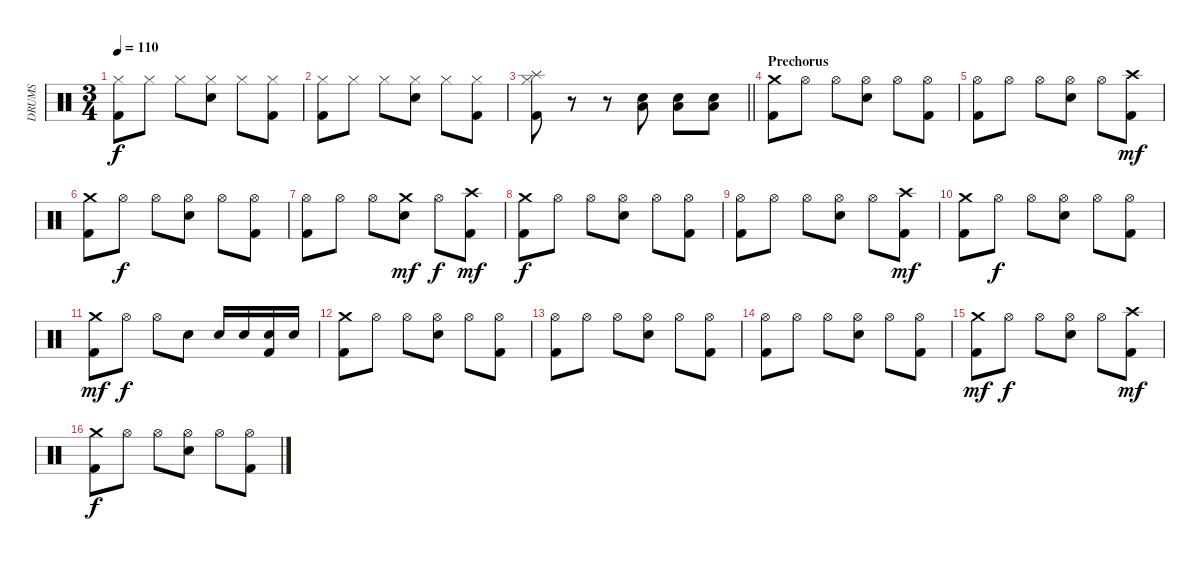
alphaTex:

\track ("DRUMS" "DRUMS") {instrument percussion}
\staff {score}
\articulation defaults
\ts (3 4)
\tempo 110
\clef neutral
\ks c
("Kick (hit) 2" "Hi-Hat (closed)").8{dy f} "Hi-Hat (closed)".8 "Hi-Hat (closed)".8 ("Electric Snare (hit)" "Hi-Hat (closed)").8 "Hi-Hat (closed)".8 ("Kick (hit) 2" "Hi-Hat (closed)").8 |
("Kick (hit) 2" "Hi-Hat (closed)").8 "Hi-Hat (closed)".8 "Hi-Hat (closed)".8 ("Electric Snare (hit)" "Hi-Hat (closed)").8 "Hi-Hat (closed)".8 ("Kick (hit) 2" "Hi-Hat (closed)").8 |
\barLineRight lightlight
("Kick (hit) 2" "Hi-Hat (closed)" "Splash (hit)").8 r.8 r.8 ("Electric Snare (hit)" "Low Floor Tom (hit)").8 ("Electric Snare (hit)" "Low Floor Tom (hit)").8 ("Electric Snare (hit)" "Low Floor Tom (hit)").8 |
\section ("" "Prechorus")
("Crash medium (hit)" "Kick (hit) 2").8 "Hi-Hat (open)".8 "Hi-Hat (open)".8 ("Hi-Hat (open)" "Snare (hit) 2").8 "Hi-Hat (open)".8 ("Hi-Hat (open)" "Kick (hit) 2").8 |
("Hi-Hat (open)" "Kick (hit) 2").8 "Hi-Hat (open)".8 "Hi-Hat (open)".8 ("Hi-Hat (open)" "Snare (hit) 2").8 "Hi-Hat (open)".8 ("Crash high (hit)" "Kick (hit) 2").8{dy mf} |
("Crash medium (hit)" "Kick (hit) 2").8 "Hi-Hat (open)".8{dy f} "Hi-Hat (open)".8 ("Hi-Hat (open)" "Snare (hit) 2").8 "Hi-Hat (open)".8 ("Hi-Hat (open)" "Kick (hit) 2").8 |
("Hi-Hat (open)" "Kick (hit) 2").8 "Hi-Hat (open)".8 "Hi-Hat (open)".8 ("Crash medium (hit)" "Snare (hit) 2").8{dy mf} "Hi-Hat (open)".8{dy f} ("Crash high (hit)" "Kick (hit) 2").8{dy mf} |
("Crash medium (hit)" "Kick (hit) 2").8{dy f} "Hi-Hat (open)".8 "Hi-Hat (open)".8 ("Hi-Hat (open)" "Snare (hit) 2").8 "Hi-Hat (open)".8 ("Hi-Hat (open)" "Kick (hit) 2").8 |
("Hi-Hat (open)" "Kick (hit) 2").8 "Hi-Hat (open)".8 "Hi-Hat (open)".8 ("Hi-Hat (open)" "Snare (hit) 2").8 "Hi-Hat (open)".8 ("Crash high (hit)" "Kick (hit) 2").8{dy mf} |
("Crash medium (hit)" "Kick (hit) 2").8 "Hi-Hat (open)".8{dy f} "Hi-Hat (open)".8 ("Hi-Hat (open)" "Snare (hit) 2").8 "Hi-Hat (open)".8 ("Hi-Hat (open)" "Kick (hit) 2").8 |
("Crash medium (hit)" "Kick (hit) 2").8{dy mf} "Hi-Hat (open)".8{dy f} "Hi-Hat (open)".8 "Snare (hit) 2".8 "Snare (hit) 2".16 "Snare (hit) 2".16 ("Snare (hit) 2" "Kick (hit) 2").16 "Snare (hit) 2".16 |
("Crash medium (hit)" "Kick (hit) 2").8 "Hi-Hat (open)".8 "Hi-Hat (open)".8 ("Hi-Hat (open)" "Snare (hit) 2").8 "Hi-Hat (open)".8 ("Hi-Hat (open)" "Kick (hit) 2").8 |
("Hi-Hat (open)" "Kick (hit) 2").8 "Hi-Hat (open)".8 "Hi-Hat (open)".8 ("Hi-Hat (open)" "Snare (hit) 2").8 "Hi-Hat (open)".8 ("Hi-Hat (open)" "Kick (hit) 2").8 |
("Hi-Hat (open)" "Kick (hit) 2").8 "Hi-Hat (open)".8 "Hi-Hat (open)".8 ("Hi-Hat (open)" "Snare (hit) 2").8 "Hi-Hat (open)".8 ("Hi-Hat (open)" "Kick (hit) 2").8 |
("Crash medium (hit)" "Kick (hit) 2").8{dy mf} "Hi-Hat (open)".8{dy f} "Hi-Hat (open)".8 ("Hi-Hat (open)" "Snare (hit) 2").8 "Hi-Hat (open)".8 ("Crash high (hit)" "Kick (hit) 2").8{dy mf} |
("Crash medium (hit)" "Kick (hit) 2").8{dy f} "Hi-Hat (open)".8 "Hi-Hat (open)".8 ("Hi-Hat (open)" "Snare (hit) 2").8 "Hi-Hat (open)".8 ("Hi-Hat (open)" "Kick (hit) 2").8
